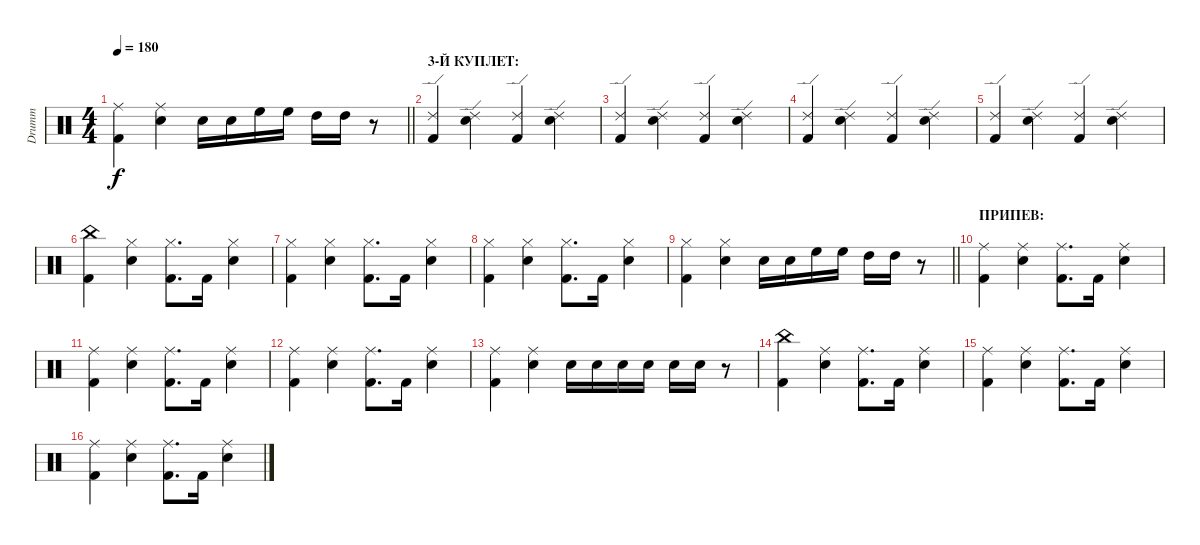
\track ("Drumm" "Drumm") {instrument percussion}
\staff {score}
\articulation defaults
\ts (4 4)
\tempo 180
\clef neutral
\barLineRight lightlight
\ks c
("Ride (middle)" "Kick (hit) 2").4{dy f} ("Ride (middle)" "Electric Snare (hit)").4 "Electric Snare (hit)".16 "Electric Snare (hit)".16 "High Floor Tom (hit)".16 "High Floor Tom (hit)".16 "High Tom (hit)".16 "High Tom (hit)".16 r.8 |
\section ("" "3-Й КУПЛЕТ:")
("Ride (edge) 2" "Kick (hit) 2").4 ("Ride (edge) 2" "Electric Snare (hit)").4 ("Ride (edge) 2" "Kick (hit) 2").4 ("Ride (edge) 2" "Electric Snare (hit)").4 |
("Ride (edge) 2" "Kick (hit) 2").4 ("Ride (edge) 2" "Electric Snare (hit)").4 ("Ride (edge) 2" "Kick (hit) 2").4 ("Ride (edge) 2" "Electric Snare (hit)").4 |
("Ride (edge) 2" "Kick (hit) 2").4 ("Ride (edge) 2" "Electric Snare (hit)").4 ("Ride (edge) 2" "Kick (hit) 2").4 ("Ride (edge) 2" "Electric Snare (hit)").4 |
("Ride (edge) 2" "Kick (hit) 2").4 ("Ride (edge) 2" "Electric Snare (hit)").4 ("Ride (edge) 2" "Kick (hit) 2").4 ("Ride (edge) 2" "Electric Snare (hit)").4 |
("China (hit)" "Kick (hit) 2").4 ("Hi-Hat (closed)" "Electric Snare (hit)").4 ("Hi-Hat (closed)" "Kick (hit) 2").8{d} "Kick (hit) 2".16 ("Hi-Hat (closed)" "Electric Snare (hit)").4 |
("Hi-Hat (closed)" "Kick (hit) 2").4 ("Hi-Hat (closed)" "Electric Snare (hit)").4 ("Hi-Hat (closed)" "Kick (hit) 2").8{d} "Kick (hit) 2".16 ("Hi-Hat (closed)" "Electric Snare (hit)").4 |
("Hi-Hat (closed)" "Kick (hit) 2").4 ("Hi-Hat (closed)" "Electric Snare (hit)").4 ("Hi-Hat (closed)" "Kick (hit) 2").8{d} "Kick (hit) 2".16 ("Hi-Hat (closed)" "Electric Snare (hit)").4 |
\barLineRight lightlight
("Hi-Hat (closed)" "Kick (hit) 2").4 ("Hi-Hat (closed)" "Electric Snare (hit)").4 "Electric Snare (hit)".16 "Electric Snare (hit)".16 "High Floor Tom (hit)".16 "High Floor Tom (hit)".16 "High Tom (hit)".16 "High Tom (hit)".16 r.8 |
\section ("" "ПРИПЕВ:")
("Ride (middle)" "Kick (hit) 2").4 ("Ride (middle)" "Electric Snare (hit)").4 ("Ride (middle)" "Kick (hit) 2").8{d} "Kick (hit) 2".16 ("Ride (middle)" "Electric Snare (hit)").4 |
("Ride (middle)" "Kick (hit) 2").4 ("Ride (middle)" "Electric Snare (hit)").4 ("Ride (middle)" "Kick (hit) 2").8{d} "Kick (hit) 2".16 ("Ride (middle)" "Electric Snare (hit)").4 |
("Ride (middle)" "Kick (hit) 2").4 ("Ride (middle)" "Electric Snare (hit)").4 ("Ride (middle)" "Kick (hit) 2").8{d} "Kick (hit) 2".16 ("Ride (middle)" "Electric Snare (hit)").4 |
("Ride (middle)" "Kick (hit) 2").4 ("Ride (middle)" "Electric Snare (hit)").4 "Electric Snare (hit)".16 "Electric Snare (hit)".16 "Electric Snare (hit)".16 "Electric Snare (hit)".16 "Electric Snare (hit)".16 "Electric Snare (hit)".16 r.8 |
("China (hit)" "Kick (hit) 2").4 ("Ride (middle)" "Electric Snare (hit)").4 ("Ride (middle)" "Kick (hit) 2").8{d} "Kick (hit) 2".16 ("Ride (middle)" "Electric Snare (hit)").4 |
("Ride (middle)" "Kick (hit) 2").4 ("Ride (middle)" "Electric Snare (hit)").4 ("Ride (middle)" "Kick (hit) 2").8{d} "Kick (hit) 2".16 ("Ride (middle)" "Electric Snare (hit)").4 |
("Ride (middle)" "Kick (hit) 2").4 ("Ride (middle)" "Electric Snare (hit)").4 ("Ride (middle)" "Kick (hit) 2").8{d} "Kick (hit) 2".16 ("Ride (middle)" "Electric Snare (hit)").4
